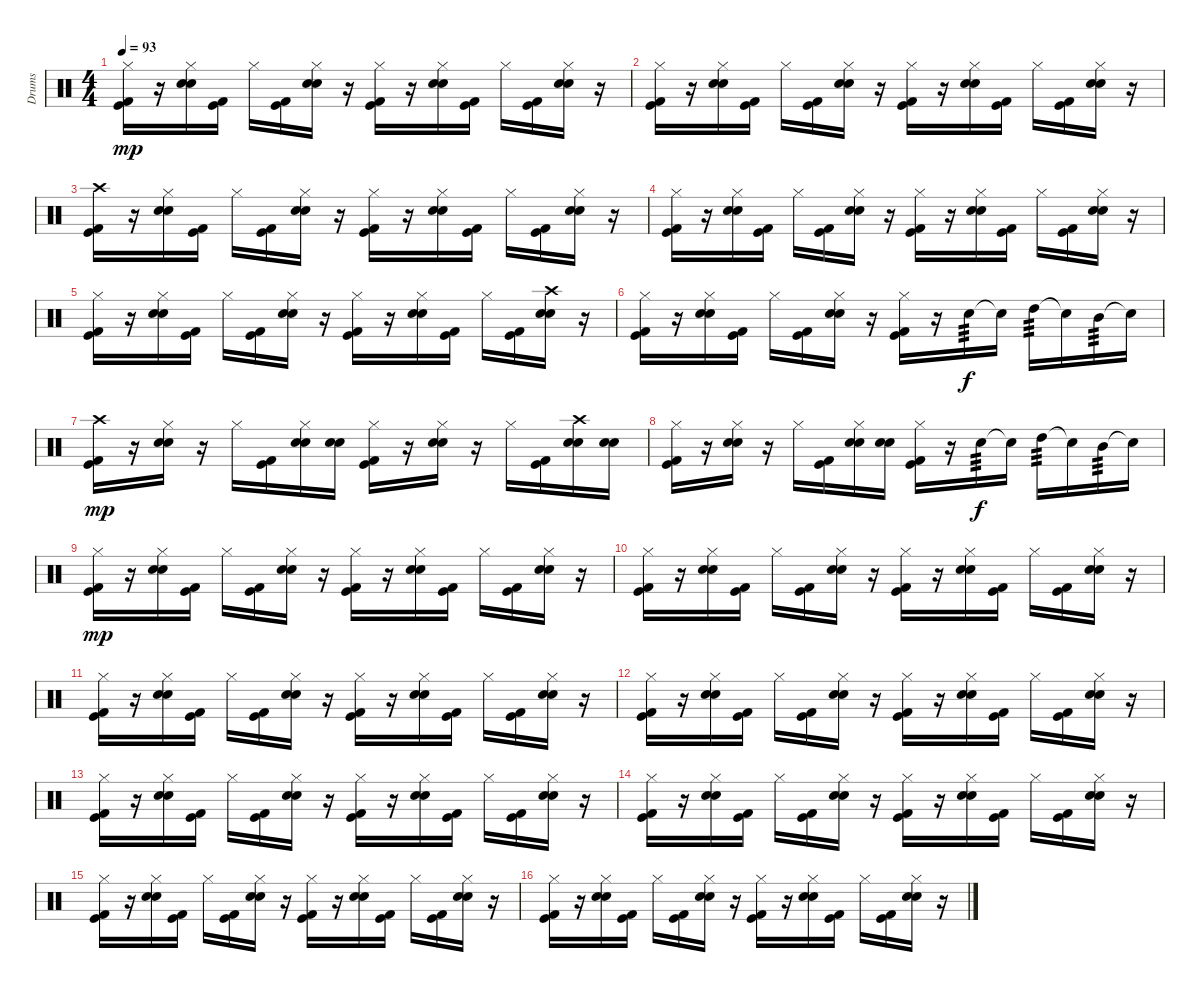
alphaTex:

\track ("Drums" "Drums") {instrument percussion}
\staff {score}
\articulation defaults
\ts (4 4)
\tempo 93
\clef neutral
\ks c
("Hi-Hat (closed)" "Kick (hit)" "Kick (hit) 2").16{dy mp} r.16 ("Hi-Hat (closed)" "Electric Snare (hit)" "Snare (hit) 2").16 ("Kick (hit)" "Kick (hit) 2").16 "Hi-Hat (closed)".16 ("Kick (hit)" "Kick (hit) 2").16 ("Hi-Hat (closed)" "Electric Snare (hit)" "Snare (hit) 2").16 r.16 ("Hi-Hat (closed)" "Kick (hit)" "Kick (hit) 2").16 r.16 ("Hi-Hat (closed)" "Electric Snare (hit)" "Snare (hit) 2").16 ("Kick (hit)" "Kick (hit) 2").16 "Hi-Hat (closed)".16 ("Kick (hit)" "Kick (hit) 2").16 ("Hi-Hat (closed)" "Electric Snare (hit)" "Snare (hit) 2").16 r.16 |
("Hi-Hat (closed)" "Kick (hit)" "Kick (hit) 2").16 r.16 ("Hi-Hat (closed)" "Electric Snare (hit)" "Snare (hit) 2").16 ("Kick (hit)" "Kick (hit) 2").16 "Hi-Hat (closed)".16 ("Kick (hit)" "Kick (hit) 2").16 ("Hi-Hat (closed)" "Electric Snare (hit)" "Snare (hit) 2").16 r.16 ("Hi-Hat (closed)" "Kick (hit)" "Kick (hit) 2").16 r.16 ("Hi-Hat (closed)" "Electric Snare (hit)" "Snare (hit) 2").16 ("Kick (hit)" "Kick (hit) 2").16 "Hi-Hat (closed)".16 ("Kick (hit)" "Kick (hit) 2").16 ("Hi-Hat (closed)" "Electric Snare (hit)" "Snare (hit) 2").16 r.16 |
("Crash high (hit)" "Kick (hit)" "Kick (hit) 2").16 r.16 ("Hi-Hat (closed)" "Electric Snare (hit)" "Snare (hit) 2").16 ("Kick (hit)" "Kick (hit) 2").16 "Hi-Hat (closed)".16 ("Kick (hit)" "Kick (hit) 2").16 ("Hi-Hat (closed)" "Electric Snare (hit)" "Snare (hit) 2").16 r.16 ("Hi-Hat (closed)" "Kick (hit)" "Kick (hit) 2").16 r.16 ("Hi-Hat (closed)" "Electric Snare (hit)" "Snare (hit) 2").16 ("Kick (hit)" "Kick (hit) 2").16 "Hi-Hat (closed)".16 ("Kick (hit)" "Kick (hit) 2").16 ("Hi-Hat (closed)" "Electric Snare (hit)" "Snare (hit) 2").16 r.16 |
("Hi-Hat (closed)" "Kick (hit)" "Kick (hit) 2").16 r.16 ("Hi-Hat (closed)" "Electric Snare (hit)" "Snare (hit) 2").16 ("Kick (hit)" "Kick (hit) 2").16 "Hi-Hat (closed)".16 ("Kick (hit)" "Kick (hit) 2").16 ("Hi-Hat (closed)" "Electric Snare (hit)" "Snare (hit) 2").16 r.16 ("Hi-Hat (closed)" "Kick (hit)" "Kick (hit) 2").16 r.16 ("Hi-Hat (closed)" "Electric Snare (hit)" "Snare (hit) 2").16 ("Kick (hit)" "Kick (hit) 2").16 "Hi-Hat (closed)".16 ("Kick (hit)" "Kick (hit) 2").16 ("Hi-Hat (closed)" "Electric Snare (hit)" "Snare (hit) 2").16 r.16 |
("Hi-Hat (closed)" "Kick (hit)" "Kick (hit) 2").16 r.16 ("Hi-Hat (closed)" "Electric Snare (hit)" "Snare (hit) 2").16 ("Kick (hit)" "Kick (hit) 2").16 "Hi-Hat (closed)".16 ("Kick (hit)" "Kick (hit) 2").16 ("Hi-Hat (closed)" "Electric Snare (hit)" "Snare (hit) 2").16 r.16 ("Hi-Hat (closed)" "Kick (hit)" "Kick (hit) 2").16 r.16 ("Hi-Hat (closed)" "Electric Snare (hit)" "Snare (hit) 2").16 ("Kick (hit)" "Kick (hit) 2").16 "Hi-Hat (closed)".16 ("Kick (hit)" "Kick (hit) 2").16 ("Crash high (hit)" "Electric Snare (hit)" "Snare (hit) 2").16 r.16 |
("Hi-Hat (closed)" "Kick (hit)" "Kick (hit) 2").16 r.16 ("Hi-Hat (closed)" "Electric Snare (hit)" "Snare (hit) 2").16 ("Kick (hit)" "Kick (hit) 2").16 "Hi-Hat (closed)".16 ("Kick (hit)" "Kick (hit) 2").16 ("Hi-Hat (closed)" "Electric Snare (hit)" "Snare (hit) 2").16 r.16 ("Hi-Hat (closed)" "Kick (hit)" "Kick (hit) 2").16 r.16 "Electric Snare (hit)".16{tp 3 dy f} "Snare (hit)"{t}.16 "High Tom (hit)".16{tp 3} "Snare (hit)"{t}.16 "Mid Tom (hit)".16{tp 3} "Snare (hit)"{t}.16 |
("Crash high (hit)" "Kick (hit)" "Kick (hit) 2").16{dy mp} r.16 ("Hi-Hat (closed)" "Electric Snare (hit)" "Snare (hit) 2").16 r.16 "Hi-Hat (closed)".16 ("Kick (hit)" "Kick (hit) 2").16 ("Hi-Hat (closed)" "Electric Snare (hit)" "Snare (hit) 2").16 ("Electric Snare (hit)" "Snare (hit) 2").16 ("Hi-Hat (closed)" "Kick (hit)" "Kick (hit) 2").16 r.16 ("Hi-Hat (closed)" "Electric Snare (hit)" "Snare (hit) 2").16 r.16 "Hi-Hat (closed)".16 ("Kick (hit)" "Kick (hit) 2").16 ("Crash high (hit)" "Electric Snare (hit)" "Snare (hit) 2").16 ("Electric Snare (hit)" "Snare (hit) 2").16 |
("Hi-Hat (closed)" "Kick (hit)" "Kick (hit) 2").16 r.16 ("Hi-Hat (closed)" "Electric Snare (hit)" "Snare (hit) 2").16 r.16 "Hi-Hat (closed)".16 ("Kick (hit)" "Kick (hit) 2").16 ("Hi-Hat (closed)" "Electric Snare (hit)" "Snare (hit) 2").16 ("Electric Snare (hit)" "Snare (hit) 2").16 ("Hi-Hat (closed)" "Kick (hit)" "Kick (hit) 2").16 r.16 "Electric Snare (hit)".16{tp 3 dy f} "Snare (hit)"{t}.16 "High Tom (hit)".16{tp 3} "Snare (hit)"{t}.16 "Mid Tom (hit)".16{tp 3} "Snare (hit)"{t}.16 |
("Hi-Hat (closed)" "Kick (hit)" "Kick (hit) 2").16{dy mp} r.16 ("Hi-Hat (closed)" "Electric Snare (hit)" "Snare (hit) 2").16 ("Kick (hit)" "Kick (hit) 2").16 "Hi-Hat (closed)".16 ("Kick (hit)" "Kick (hit) 2").16 ("Hi-Hat (closed)" "Electric Snare (hit)" "Snare (hit) 2").16 r.16 ("Hi-Hat (closed)" "Kick (hit)" "Kick (hit) 2").16 r.16 ("Hi-Hat (closed)" "Electric Snare (hit)" "Snare (hit) 2").16 ("Kick (hit)" "Kick (hit) 2").16 "Hi-Hat (closed)".16 ("Kick (hit)" "Kick (hit) 2").16 ("Hi-Hat (closed)" "Electric Snare (hit)" "Snare (hit) 2").16 r.16 |
("Hi-Hat (closed)" "Kick (hit)" "Kick (hit) 2").16 r.16 ("Hi-Hat (closed)" "Electric Snare (hit)" "Snare (hit) 2").16 ("Kick (hit)" "Kick (hit) 2").16 "Hi-Hat (closed)".16 ("Kick (hit)" "Kick (hit) 2").16 ("Hi-Hat (closed)" "Electric Snare (hit)" "Snare (hit) 2").16 r.16 ("Hi-Hat (closed)" "Kick (hit)" "Kick (hit) 2").16 r.16 ("Hi-Hat (closed)" "Electric Snare (hit)" "Snare (hit) 2").16 ("Kick (hit)" "Kick (hit) 2").16 "Hi-Hat (closed)".16 ("Kick (hit)" "Kick (hit) 2").16 ("Hi-Hat (closed)" "Electric Snare (hit)" "Snare (hit) 2").16 r.16 |
("Hi-Hat (closed)" "Kick (hit)" "Kick (hit) 2").16 r.16 ("Hi-Hat (closed)" "Electric Snare (hit)" "Snare (hit) 2").16 ("Kick (hit)" "Kick (hit) 2").16 "Hi-Hat (closed)".16 ("Kick (hit)" "Kick (hit) 2").16 ("Hi-Hat (closed)" "Electric Snare (hit)" "Snare (hit) 2").16 r.16 ("Hi-Hat (closed)" "Kick (hit)" "Kick (hit) 2").16 r.16 ("Hi-Hat (closed)" "Electric Snare (hit)" "Snare (hit) 2").16 ("Kick (hit)" "Kick (hit) 2").16 "Hi-Hat (closed)".16 ("Kick (hit)" "Kick (hit) 2").16 ("Hi-Hat (closed)" "Electric Snare (hit)" "Snare (hit) 2").16 r.16 |
("Hi-Hat (closed)" "Kick (hit)" "Kick (hit) 2").16 r.16 ("Hi-Hat (closed)" "Electric Snare (hit)" "Snare (hit) 2").16 ("Kick (hit)" "Kick (hit) 2").16 "Hi-Hat (closed)".16 ("Kick (hit)" "Kick (hit) 2").16 ("Hi-Hat (closed)" "Electric Snare (hit)" "Snare (hit) 2").16 r.16 ("Hi-Hat (closed)" "Kick (hit)" "Kick (hit) 2").16 r.16 ("Hi-Hat (closed)" "Electric Snare (hit)" "Snare (hit) 2").16 ("Kick (hit)" "Kick (hit) 2").16 "Hi-Hat (closed)".16 ("Kick (hit)" "Kick (hit) 2").16 ("Hi-Hat (closed)" "Electric Snare (hit)" "Snare (hit) 2").16 r.16 |
("Hi-Hat (closed)" "Kick (hit)" "Kick (hit) 2").16 r.16 ("Hi-Hat (closed)" "Electric Snare (hit)" "Snare (hit) 2").16 ("Kick (hit)" "Kick (hit) 2").16 "Hi-Hat (closed)".16 ("Kick (hit)" "Kick (hit) 2").16 ("Hi-Hat (closed)" "Electric Snare (hit)" "Snare (hit) 2").16 r.16 ("Hi-Hat (closed)" "Kick (hit)" "Kick (hit) 2").16 r.16 ("Hi-Hat (closed)" "Electric Snare (hit)" "Snare (hit) 2").16 ("Kick (hit)" "Kick (hit) 2").16 "Hi-Hat (closed)".16 ("Kick (hit)" "Kick (hit) 2").16 ("Hi-Hat (closed)" "Electric Snare (hit)" "Snare (hit) 2").16 r.16 |
("Hi-Hat (closed)" "Kick (hit)" "Kick (hit) 2").16 r.16 ("Hi-Hat (closed)" "Electric Snare (hit)" "Snare (hit) 2").16 ("Kick (hit)" "Kick (hit) 2").16 "Hi-Hat (closed)".16 ("Kick (hit)" "Kick (hit) 2").16 ("Hi-Hat (closed)" "Electric Snare (hit)" "Snare (hit) 2").16 r.16 ("Hi-Hat (closed)" "Kick (hit)" "Kick (hit) 2").16 r.16 ("Hi-Hat (closed)" "Electric Snare (hit)" "Snare (hit) 2").16 ("Kick (hit)" "Kick (hit) 2").16 "Hi-Hat (closed)".16 ("Kick (hit)" "Kick (hit) 2").16 ("Hi-Hat (closed)" "Electric Snare (hit)" "Snare (hit) 2").16 r.16 |
("Hi-Hat (closed)" "Kick (hit)" "Kick (hit) 2").16 r.16 ("Hi-Hat (closed)" "Electric Snare (hit)" "Snare (hit) 2").16 ("Kick (hit)" "Kick (hit) 2").16 "Hi-Hat (closed)".16 ("Kick (hit)" "Kick (hit) 2").16 ("Hi-Hat (closed)" "Electric Snare (hit)" "Snare (hit) 2").16 r.16 ("Hi-Hat (closed)" "Kick (hit)" "Kick (hit) 2").16 r.16 ("Hi-Hat (closed)" "Electric Snare (hit)" "Snare (hit) 2").16 ("Kick (hit)" "Kick (hit) 2").16 "Hi-Hat (closed)".16 ("Kick (hit)" "Kick (hit) 2").16 ("Hi-Hat (closed)" "Electric Snare (hit)" "Snare (hit) 2").16 r.16 |
("Hi-Hat (closed)" "Kick (hit)" "Kick (hit) 2").16 r.16 ("Hi-Hat (closed)" "Electric Snare (hit)" "Snare (hit) 2").16 ("Kick (hit)" "Kick (hit) 2").16 "Hi-Hat (closed)".16 ("Kick (hit)" "Kick (hit) 2").16 ("Hi-Hat (closed)" "Electric Snare (hit)" "Snare (hit) 2").16 r.16 ("Hi-Hat (closed)" "Kick (hit)" "Kick (hit) 2").16 r.16 ("Hi-Hat (closed)" "Electric Snare (hit)" "Snare (hit) 2").16 ("Kick (hit)" "Kick (hit) 2").16 "Hi-Hat (closed)".16 ("Kick (hit)" "Kick (hit) 2").16 ("Hi-Hat (closed)" "Electric Snare (hit)" "Snare (hit) 2").16 r.16
